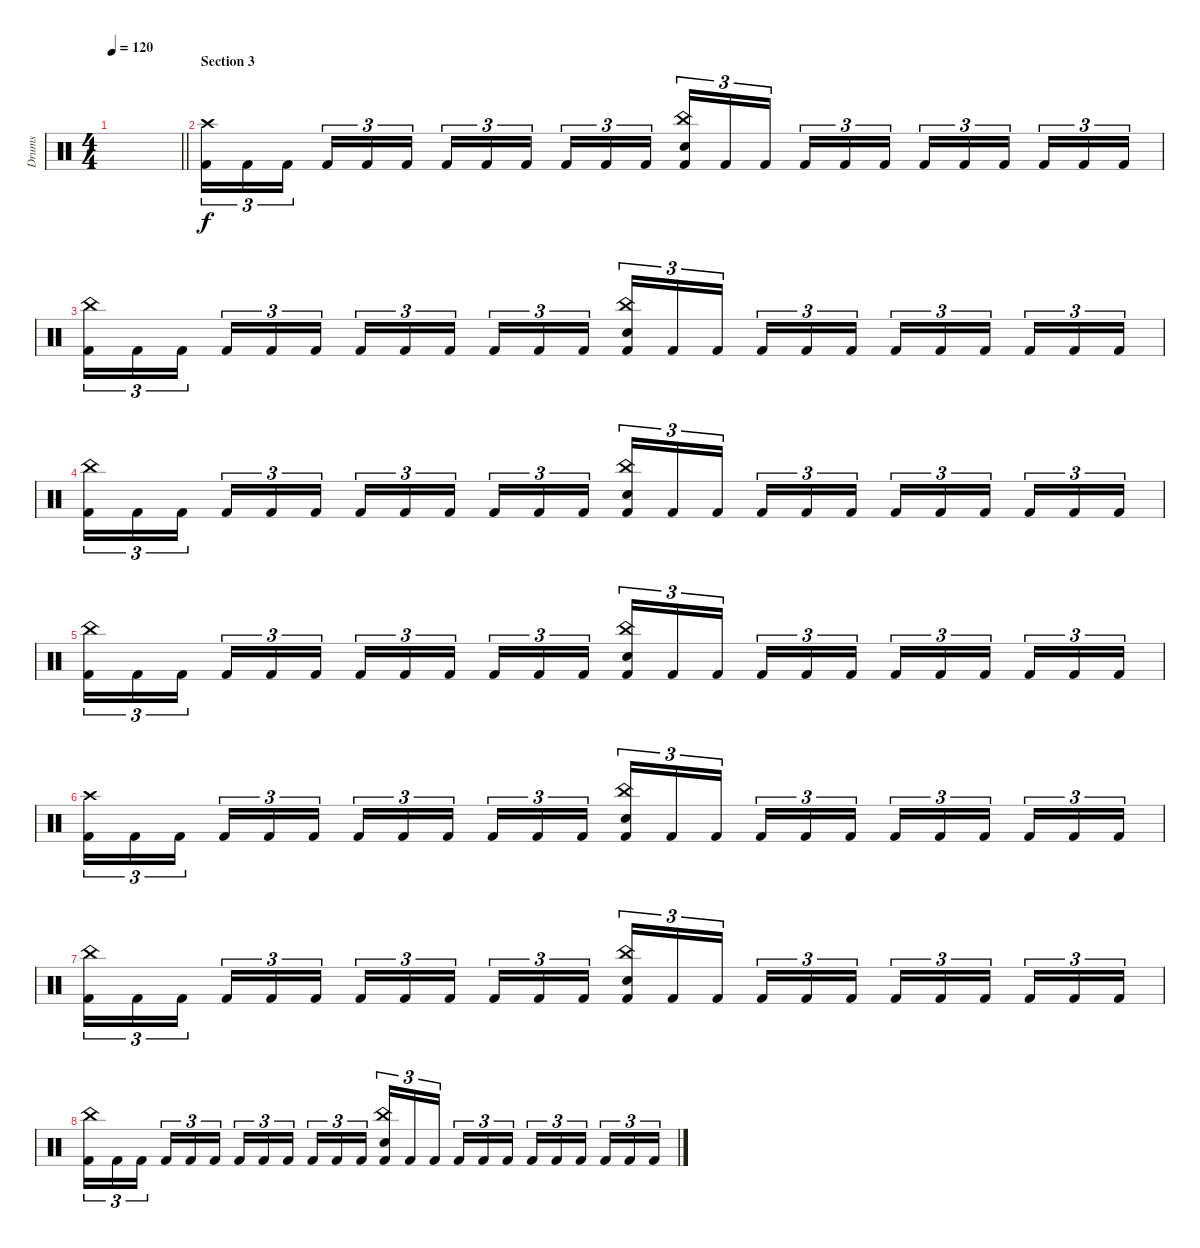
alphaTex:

\track ("Drums" "Drums") {instrument percussion}
\staff {score}
\articulation defaults
\ts (4 4)
\tempo 120
\clef neutral
\barLineRight lightlight
\ks c
|
\section ("" "Section 3")
("Crash high (hit)" "Kick (hit) 2").16{tu (3 2)} "Kick (hit) 2".16{tu (3 2)} "Kick (hit) 2".16{tu (3 2) beam splitsecondary} "Kick (hit) 2".16{tu (3 2)} "Kick (hit) 2".16{tu (3 2)} "Kick (hit) 2".16{tu (3 2)} "Kick (hit) 2".16{tu (3 2)} "Kick (hit) 2".16{tu (3 2)} "Kick (hit) 2".16{tu (3 2) beam splitsecondary} "Kick (hit) 2".16{tu (3 2)} "Kick (hit) 2".16{tu (3 2)} "Kick (hit) 2".16{tu (3 2)} ("China (hit)" "Snare (hit) 2" "Kick (hit) 2").16{tu (3 2)} "Kick (hit) 2".16{tu (3 2)} "Kick (hit) 2".16{tu (3 2) beam splitsecondary} "Kick (hit) 2".16{tu (3 2)} "Kick (hit) 2".16{tu (3 2)} "Kick (hit) 2".16{tu (3 2)} "Kick (hit) 2".16{tu (3 2)} "Kick (hit) 2".16{tu (3 2)} "Kick (hit) 2".16{tu (3 2) beam splitsecondary} "Kick (hit) 2".16{tu (3 2)} "Kick (hit) 2".16{tu (3 2)} "Kick (hit) 2".16{tu (3 2)} |
("China (hit)" "Kick (hit) 2").16{tu (3 2)} "Kick (hit) 2".16{tu (3 2)} "Kick (hit) 2".16{tu (3 2) beam splitsecondary} "Kick (hit) 2".16{tu (3 2)} "Kick (hit) 2".16{tu (3 2)} "Kick (hit) 2".16{tu (3 2)} "Kick (hit) 2".16{tu (3 2)} "Kick (hit) 2".16{tu (3 2)} "Kick (hit) 2".16{tu (3 2) beam splitsecondary} "Kick (hit) 2".16{tu (3 2)} "Kick (hit) 2".16{tu (3 2)} "Kick (hit) 2".16{tu (3 2)} ("China (hit)" "Snare (hit) 2" "Kick (hit) 2").16{tu (3 2)} "Kick (hit) 2".16{tu (3 2)} "Kick (hit) 2".16{tu (3 2) beam splitsecondary} "Kick (hit) 2".16{tu (3 2)} "Kick (hit) 2".16{tu (3 2)} "Kick (hit) 2".16{tu (3 2)} "Kick (hit) 2".16{tu (3 2)} "Kick (hit) 2".16{tu (3 2)} "Kick (hit) 2".16{tu (3 2) beam splitsecondary} "Kick (hit) 2".16{tu (3 2)} "Kick (hit) 2".16{tu (3 2)} "Kick (hit) 2".16{tu (3 2)} |
("China (hit)" "Kick (hit) 2").16{tu (3 2)} "Kick (hit) 2".16{tu (3 2)} "Kick (hit) 2".16{tu (3 2) beam splitsecondary} "Kick (hit) 2".16{tu (3 2)} "Kick (hit) 2".16{tu (3 2)} "Kick (hit) 2".16{tu (3 2)} "Kick (hit) 2".16{tu (3 2)} "Kick (hit) 2".16{tu (3 2)} "Kick (hit) 2".16{tu (3 2) beam splitsecondary} "Kick (hit) 2".16{tu (3 2)} "Kick (hit) 2".16{tu (3 2)} "Kick (hit) 2".16{tu (3 2)} ("China (hit)" "Snare (hit) 2" "Kick (hit) 2").16{tu (3 2)} "Kick (hit) 2".16{tu (3 2)} "Kick (hit) 2".16{tu (3 2) beam splitsecondary} "Kick (hit) 2".16{tu (3 2)} "Kick (hit) 2".16{tu (3 2)} "Kick (hit) 2".16{tu (3 2)} "Kick (hit) 2".16{tu (3 2)} "Kick (hit) 2".16{tu (3 2)} "Kick (hit) 2".16{tu (3 2) beam splitsecondary} "Kick (hit) 2".16{tu (3 2)} "Kick (hit) 2".16{tu (3 2)} "Kick (hit) 2".16{tu (3 2)} |
("China (hit)" "Kick (hit) 2").16{tu (3 2)} "Kick (hit) 2".16{tu (3 2)} "Kick (hit) 2".16{tu (3 2) beam splitsecondary} "Kick (hit) 2".16{tu (3 2)} "Kick (hit) 2".16{tu (3 2)} "Kick (hit) 2".16{tu (3 2)} "Kick (hit) 2".16{tu (3 2)} "Kick (hit) 2".16{tu (3 2)} "Kick (hit) 2".16{tu (3 2) beam splitsecondary} "Kick (hit) 2".16{tu (3 2)} "Kick (hit) 2".16{tu (3 2)} "Kick (hit) 2".16{tu (3 2)} ("China (hit)" "Snare (hit) 2" "Kick (hit) 2").16{tu (3 2)} "Kick (hit) 2".16{tu (3 2)} "Kick (hit) 2".16{tu (3 2) beam splitsecondary} "Kick (hit) 2".16{tu (3 2)} "Kick (hit) 2".16{tu (3 2)} "Kick (hit) 2".16{tu (3 2)} "Kick (hit) 2".16{tu (3 2)} "Kick (hit) 2".16{tu (3 2)} "Kick (hit) 2".16{tu (3 2) beam splitsecondary} "Kick (hit) 2".16{tu (3 2)} "Kick (hit) 2".16{tu (3 2)} "Kick (hit) 2".16{tu (3 2)} |
("Crash high (hit)" "Kick (hit) 2").16{tu (3 2)} "Kick (hit) 2".16{tu (3 2)} "Kick (hit) 2".16{tu (3 2) beam splitsecondary} "Kick (hit) 2".16{tu (3 2)} "Kick (hit) 2".16{tu (3 2)} "Kick (hit) 2".16{tu (3 2)} "Kick (hit) 2".16{tu (3 2)} "Kick (hit) 2".16{tu (3 2)} "Kick (hit) 2".16{tu (3 2) beam splitsecondary} "Kick (hit) 2".16{tu (3 2)} "Kick (hit) 2".16{tu (3 2)} "Kick (hit) 2".16{tu (3 2)} ("China (hit)" "Snare (hit) 2" "Kick (hit) 2").16{tu (3 2)} "Kick (hit) 2".16{tu (3 2)} "Kick (hit) 2".16{tu (3 2) beam splitsecondary} "Kick (hit) 2".16{tu (3 2)} "Kick (hit) 2".16{tu (3 2)} "Kick (hit) 2".16{tu (3 2)} "Kick (hit) 2".16{tu (3 2)} "Kick (hit) 2".16{tu (3 2)} "Kick (hit) 2".16{tu (3 2) beam splitsecondary} "Kick (hit) 2".16{tu (3 2)} "Kick (hit) 2".16{tu (3 2)} "Kick (hit) 2".16{tu (3 2)} |
("China (hit)" "Kick (hit) 2").16{tu (3 2)} "Kick (hit) 2".16{tu (3 2)} "Kick (hit) 2".16{tu (3 2) beam splitsecondary} "Kick (hit) 2".16{tu (3 2)} "Kick (hit) 2".16{tu (3 2)} "Kick (hit) 2".16{tu (3 2)} "Kick (hit) 2".16{tu (3 2)} "Kick (hit) 2".16{tu (3 2)} "Kick (hit) 2".16{tu (3 2) beam splitsecondary} "Kick (hit) 2".16{tu (3 2)} "Kick (hit) 2".16{tu (3 2)} "Kick (hit) 2".16{tu (3 2)} ("China (hit)" "Snare (hit) 2" "Kick (hit) 2").16{tu (3 2)} "Kick (hit) 2".16{tu (3 2)} "Kick (hit) 2".16{tu (3 2) beam splitsecondary} "Kick (hit) 2".16{tu (3 2)} "Kick (hit) 2".16{tu (3 2)} "Kick (hit) 2".16{tu (3 2)} "Kick (hit) 2".16{tu (3 2)} "Kick (hit) 2".16{tu (3 2)} "Kick (hit) 2".16{tu (3 2) beam splitsecondary} "Kick (hit) 2".16{tu (3 2)} "Kick (hit) 2".16{tu (3 2)} "Kick (hit) 2".16{tu (3 2)} |
("China (hit)" "Kick (hit) 2").16{tu (3 2)} "Kick (hit) 2".16{tu (3 2)} "Kick (hit) 2".16{tu (3 2) beam splitsecondary} "Kick (hit) 2".16{tu (3 2)} "Kick (hit) 2".16{tu (3 2)} "Kick (hit) 2".16{tu (3 2)} "Kick (hit) 2".16{tu (3 2)} "Kick (hit) 2".16{tu (3 2)} "Kick (hit) 2".16{tu (3 2) beam splitsecondary} "Kick (hit) 2".16{tu (3 2)} "Kick (hit) 2".16{tu (3 2)} "Kick (hit) 2".16{tu (3 2)} ("China (hit)" "Snare (hit) 2" "Kick (hit) 2").16{tu (3 2)} "Kick (hit) 2".16{tu (3 2)} "Kick (hit) 2".16{tu (3 2) beam splitsecondary} "Kick (hit) 2".16{tu (3 2)} "Kick (hit) 2".16{tu (3 2)} "Kick (hit) 2".16{tu (3 2)} "Kick (hit) 2".16{tu (3 2)} "Kick (hit) 2".16{tu (3 2)} "Kick (hit) 2".16{tu (3 2) beam splitsecondary} "Kick (hit) 2".16{tu (3 2)} "Kick (hit) 2".16{tu (3 2)} "Kick (hit) 2".16{tu (3 2)}
